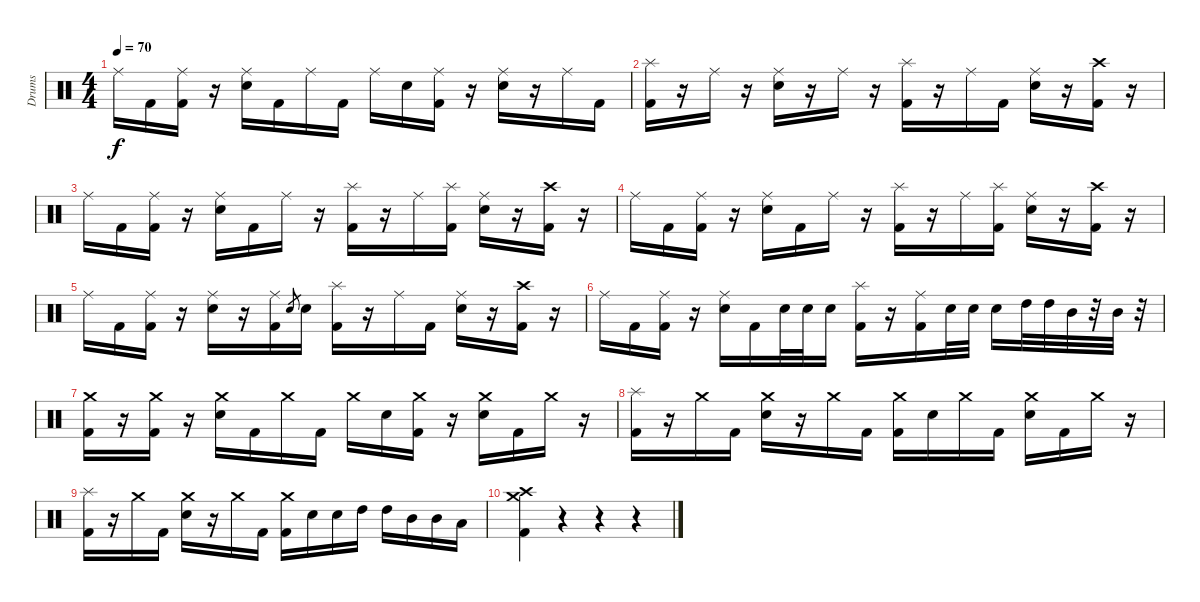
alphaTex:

\track ("Drums" "Drums") {instrument percussion}
\staff {score}
\articulation defaults
\ts (4 4)
\tempo 70
\clef neutral
\ks c "Ride (middle)".16{dy f} "Kick (hit) 2".16
("Ride (middle)" "Kick (hit) 2").16 r.16 ("Ride (middle)" "Electric Snare (hit)").16 "Kick (hit) 2".16 "Ride (middle)".16 "Kick (hit) 2".16 "Ride (middle)".16 "Electric Snare (hit)".16 ("Ride (middle)" "Kick (hit) 2").16 r.16 ("Ride (middle)" "Electric Snare (hit)").16 r.16 "Ride (middle)".16 "Kick (hit) 2".16 |
("Splash (hit)" "Kick (hit) 2").16 r.16 "Ride (middle)".16 r.16 ("Ride (middle)" "Electric Snare (hit)").16 r.16 "Ride (middle)".16 r.16 ("Splash (hit)" "Kick (hit) 2").16 r.16 "Ride (middle)".16 "Kick (hit) 2".16 ("Ride (middle)" "Electric Snare (hit)").16 r.16 ("Crash high (hit)" "Kick (hit) 2").16 r.16 |
"Ride (middle)".16 "Kick (hit) 2".16 ("Ride (middle)" "Kick (hit) 2").16 r.16 ("Ride (middle)" "Electric Snare (hit)").16 "Kick (hit) 2".16 "Ride (middle)".16 r.16 ("Splash (hit)" "Kick (hit) 2").16 r.16 "Ride (middle)".16 ("Splash (hit)" "Kick (hit) 2").16 ("Ride (middle)" "Electric Snare (hit)").16 r.16 ("Crash high (hit)" "Kick (hit) 2").16 r.16 |
"Ride (middle)".16 "Kick (hit) 2".16 ("Ride (middle)" "Kick (hit) 2").16 r.16 ("Ride (middle)" "Electric Snare (hit)").16 "Kick (hit) 2".16 "Ride (middle)".16 r.16 ("Splash (hit)" "Kick (hit) 2").16 r.16 "Ride (middle)".16 ("Splash (hit)" "Kick (hit) 2").16 ("Ride (middle)" "Electric Snare (hit)").16 r.16 ("Crash high (hit)" "Kick (hit) 2").16 r.16 |
"Ride (middle)".16 "Kick (hit) 2".16 ("Ride (middle)" "Kick (hit) 2").16 r.16 ("Ride (middle)" "Electric Snare (hit)").16 r.16 ("Ride (middle)" "Kick (hit) 2").16 "Electric Snare (hit)".8{gr} "Electric Snare (hit)".16 ("Splash (hit)" "Kick (hit) 2").16 r.16 "Ride (middle)".16 "Kick (hit) 2".16 ("Ride (middle)" "Electric Snare (hit)").16 r.16 ("Crash high (hit)" "Kick (hit) 2").16 r.16 |
"Ride (middle)".16 "Kick (hit) 2".16 ("Ride (middle)" "Kick (hit) 2").16 r.16 ("Ride (middle)" "Electric Snare (hit)").16 "Kick (hit) 2".16 "Electric Snare (hit)".32 "Electric Snare (hit)".32 "Electric Snare (hit)".16 ("Splash (hit)" "Kick (hit) 2").16 r.16 ("Ride (middle)" "Kick (hit) 2").16 "Electric Snare (hit)".32 "Electric Snare (hit)".32 "Electric Snare (hit)".16 "High Tom (hit)".32 "High Tom (hit)".32 "Mid Tom (hit)".32 r.32 "Mid Tom (hit)".32 r.32 |
("Crash medium (hit)" "Kick (hit) 2").16 r.16 ("Crash medium (hit)" "Kick (hit) 2").16 r.16 ("Crash medium (hit)" "Electric Snare (hit)").16 "Kick (hit) 2".16 "Crash medium (hit)".16 "Kick (hit) 2".16 "Crash medium (hit)".16 "Electric Snare (hit)".16 ("Crash medium (hit)" "Kick (hit) 2").16 r.16 ("Crash medium (hit)" "Electric Snare (hit)").16 "Kick (hit) 2".16 "Crash medium (hit)".16 r.16 |
("Splash (hit)" "Kick (hit) 2").16 r.16 "Crash medium (hit)".16 "Kick (hit) 2".16 ("Crash medium (hit)" "Electric Snare (hit)").16 r.16 "Crash medium (hit)".16 "Kick (hit) 2".16 ("Crash medium (hit)" "Kick (hit) 2").16 "Electric Snare (hit)".16 "Crash medium (hit)".16 "Kick (hit) 2".16 ("Crash medium (hit)" "Electric Snare (hit)").16 "Kick (hit) 2".16 "Crash medium (hit)".16 r.16 |
("Splash (hit)" "Kick (hit) 2").16 r.16 "Crash medium (hit)".16 "Kick (hit) 2".16 ("Crash medium (hit)" "Electric Snare (hit)").16 r.16 "Crash medium (hit)".16 "Kick (hit) 2".16 ("Crash medium (hit)" "Kick (hit) 2").16 "Electric Snare (hit)".16 "Electric Snare (hit)".16 "High Tom (hit)".16 "High Tom (hit)".16 "Mid Tom (hit)".16 "Mid Tom (hit)".16 "Low Tom (hit)".16 |
("Crash high (hit)" "Crash medium (hit)" "Kick (hit) 2").4 r.4 r.4 r.4
